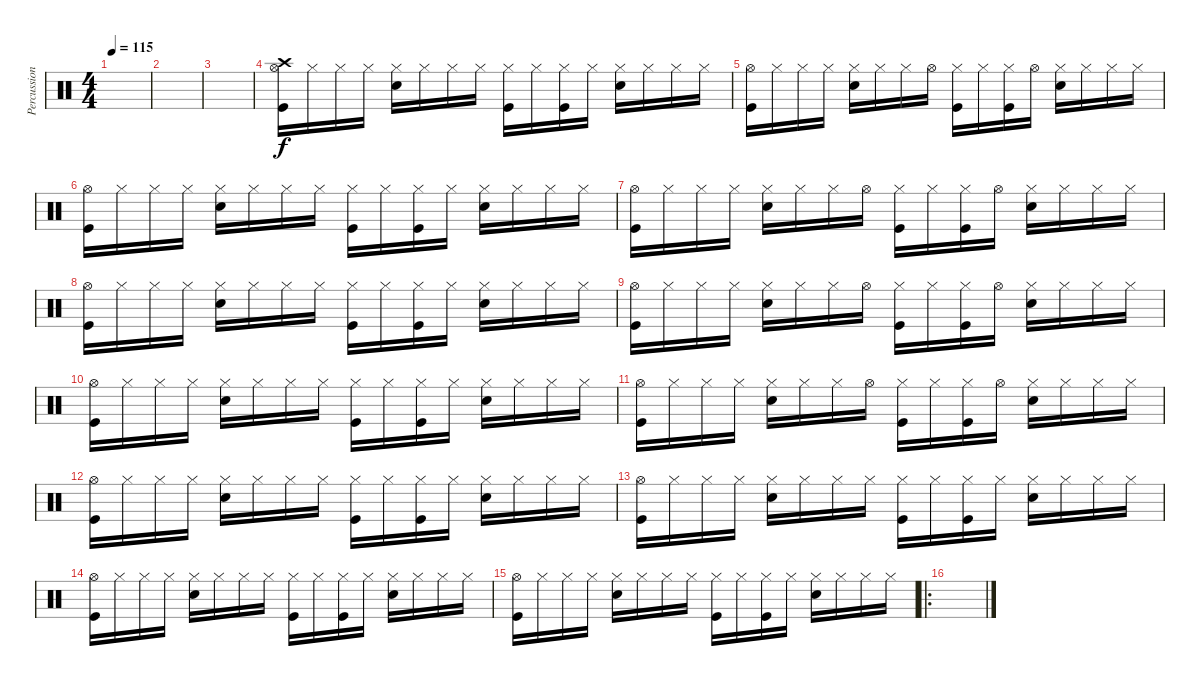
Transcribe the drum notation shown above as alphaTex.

\track ("Percussions" "Percussion") {instrument percussion}
\staff {score}
\articulation defaults
\ts (4 4)
\tempo 115
\clef neutral
\ks c
|
|
|
("Crash high (hit)" "Hi-Hat (open)" "Kick (hit)").16 "Hi-Hat (closed)".16 "Hi-Hat (closed)".16 "Hi-Hat (closed)".16 ("Hi-Hat (closed)" "Snare (hit) 2").16 "Hi-Hat (closed)".16 "Hi-Hat (closed)".16 "Hi-Hat (closed)".16 ("Hi-Hat (closed)" "Kick (hit)").16 "Hi-Hat (closed)".16 ("Hi-Hat (closed)" "Kick (hit)").16 "Hi-Hat (closed)".16 ("Hi-Hat (closed)" "Snare (hit) 2").16 "Hi-Hat (closed)".16 "Hi-Hat (closed)".16 "Hi-Hat (closed)".16 |
("Hi-Hat (open)" "Kick (hit)").16 "Hi-Hat (closed)".16 "Hi-Hat (closed)".16 "Hi-Hat (closed)".16 ("Hi-Hat (closed)" "Snare (hit) 2").16 "Hi-Hat (closed)".16 "Hi-Hat (closed)".16 "Hi-Hat (open)".16 ("Hi-Hat (closed)" "Kick (hit)").16 "Hi-Hat (closed)".16 ("Hi-Hat (closed)" "Kick (hit)").16 "Hi-Hat (open)".16 ("Hi-Hat (closed)" "Snare (hit) 2").16 "Hi-Hat (closed)".16 "Hi-Hat (closed)".16 "Hi-Hat (closed)".16 |
("Hi-Hat (open)" "Kick (hit)").16 "Hi-Hat (closed)".16 "Hi-Hat (closed)".16 "Hi-Hat (closed)".16 ("Hi-Hat (closed)" "Snare (hit) 2").16 "Hi-Hat (closed)".16 "Hi-Hat (closed)".16 "Hi-Hat (closed)".16 ("Hi-Hat (closed)" "Kick (hit)").16 "Hi-Hat (closed)".16 ("Hi-Hat (closed)" "Kick (hit)").16 "Hi-Hat (closed)".16 ("Hi-Hat (closed)" "Snare (hit) 2").16 "Hi-Hat (closed)".16 "Hi-Hat (closed)".16 "Hi-Hat (closed)".16 |
("Hi-Hat (open)" "Kick (hit)").16 "Hi-Hat (closed)".16 "Hi-Hat (closed)".16 "Hi-Hat (closed)".16 ("Hi-Hat (closed)" "Snare (hit) 2").16 "Hi-Hat (closed)".16 "Hi-Hat (closed)".16 "Hi-Hat (open)".16 ("Hi-Hat (closed)" "Kick (hit)").16 "Hi-Hat (closed)".16 ("Hi-Hat (closed)" "Kick (hit)").16 "Hi-Hat (open)".16 ("Hi-Hat (closed)" "Snare (hit) 2").16 "Hi-Hat (closed)".16 "Hi-Hat (closed)".16 "Hi-Hat (closed)".16 |
("Hi-Hat (open)" "Kick (hit)").16 "Hi-Hat (closed)".16 "Hi-Hat (closed)".16 "Hi-Hat (closed)".16 ("Hi-Hat (closed)" "Snare (hit) 2").16 "Hi-Hat (closed)".16 "Hi-Hat (closed)".16 "Hi-Hat (closed)".16 ("Hi-Hat (closed)" "Kick (hit)").16 "Hi-Hat (closed)".16 ("Hi-Hat (closed)" "Kick (hit)").16 "Hi-Hat (closed)".16 ("Hi-Hat (closed)" "Snare (hit) 2").16 "Hi-Hat (closed)".16 "Hi-Hat (closed)".16 "Hi-Hat (closed)".16 |
("Hi-Hat (open)" "Kick (hit)").16 "Hi-Hat (closed)".16 "Hi-Hat (closed)".16 "Hi-Hat (closed)".16 ("Hi-Hat (closed)" "Snare (hit) 2").16 "Hi-Hat (closed)".16 "Hi-Hat (closed)".16 "Hi-Hat (open)".16 ("Hi-Hat (closed)" "Kick (hit)").16 "Hi-Hat (closed)".16 ("Hi-Hat (closed)" "Kick (hit)").16 "Hi-Hat (open)".16 ("Hi-Hat (closed)" "Snare (hit) 2").16 "Hi-Hat (closed)".16 "Hi-Hat (closed)".16 "Hi-Hat (closed)".16 |
("Hi-Hat (open)" "Kick (hit)").16 "Hi-Hat (closed)".16 "Hi-Hat (closed)".16 "Hi-Hat (closed)".16 ("Hi-Hat (closed)" "Snare (hit) 2").16 "Hi-Hat (closed)".16 "Hi-Hat (closed)".16 "Hi-Hat (closed)".16 ("Hi-Hat (closed)" "Kick (hit)").16 "Hi-Hat (closed)".16 ("Hi-Hat (closed)" "Kick (hit)").16 "Hi-Hat (closed)".16 ("Hi-Hat (closed)" "Snare (hit) 2").16 "Hi-Hat (closed)".16 "Hi-Hat (closed)".16 "Hi-Hat (closed)".16 |
("Hi-Hat (open)" "Kick (hit)").16 "Hi-Hat (closed)".16 "Hi-Hat (closed)".16 "Hi-Hat (closed)".16 ("Hi-Hat (closed)" "Snare (hit) 2").16 "Hi-Hat (closed)".16 "Hi-Hat (closed)".16 "Hi-Hat (open)".16 ("Hi-Hat (closed)" "Kick (hit)").16 "Hi-Hat (closed)".16 ("Hi-Hat (closed)" "Kick (hit)").16 "Hi-Hat (open)".16 ("Hi-Hat (closed)" "Snare (hit) 2").16 "Hi-Hat (closed)".16 "Hi-Hat (closed)".16 "Hi-Hat (closed)".16 |
("Hi-Hat (open)" "Kick (hit)").16 "Hi-Hat (closed)".16 "Hi-Hat (closed)".16 "Hi-Hat (closed)".16 ("Hi-Hat (closed)" "Snare (hit) 2").16 "Hi-Hat (closed)".16 "Hi-Hat (closed)".16 "Hi-Hat (closed)".16 ("Hi-Hat (closed)" "Kick (hit)").16 "Hi-Hat (closed)".16 ("Hi-Hat (closed)" "Kick (hit)").16 "Hi-Hat (closed)".16 ("Hi-Hat (closed)" "Snare (hit) 2").16 "Hi-Hat (closed)".16 "Hi-Hat (closed)".16 "Hi-Hat (closed)".16 |
("Hi-Hat (open)" "Kick (hit)").16 "Hi-Hat (closed)".16 "Hi-Hat (closed)".16 "Hi-Hat (closed)".16 ("Hi-Hat (closed)" "Snare (hit) 2").16 "Hi-Hat (closed)".16 "Hi-Hat (closed)".16 "Hi-Hat (closed)".16 ("Hi-Hat (closed)" "Kick (hit)").16 "Hi-Hat (closed)".16 ("Hi-Hat (closed)" "Kick (hit)").16 "Hi-Hat (closed)".16 ("Hi-Hat (closed)" "Snare (hit) 2").16 "Hi-Hat (closed)".16 "Hi-Hat (closed)".16 "Hi-Hat (closed)".16 |
("Hi-Hat (open)" "Kick (hit)").16 "Hi-Hat (closed)".16 "Hi-Hat (closed)".16 "Hi-Hat (closed)".16 ("Hi-Hat (closed)" "Snare (hit) 2").16 "Hi-Hat (closed)".16 "Hi-Hat (closed)".16 "Hi-Hat (closed)".16 ("Hi-Hat (closed)" "Kick (hit)").16 "Hi-Hat (closed)".16 ("Hi-Hat (closed)" "Kick (hit)").16 "Hi-Hat (closed)".16 ("Hi-Hat (closed)" "Snare (hit) 2").16 "Hi-Hat (closed)".16 "Hi-Hat (closed)".16 "Hi-Hat (closed)".16 |
("Hi-Hat (open)" "Kick (hit)").16 "Hi-Hat (closed)".16 "Hi-Hat (closed)".16 "Hi-Hat (closed)".16 ("Hi-Hat (closed)" "Snare (hit) 2").16 "Hi-Hat (closed)".16 "Hi-Hat (closed)".16 "Hi-Hat (closed)".16 ("Hi-Hat (closed)" "Kick (hit)").16 "Hi-Hat (closed)".16 ("Hi-Hat (closed)" "Kick (hit)").16 "Hi-Hat (closed)".16 ("Hi-Hat (closed)" "Snare (hit) 2").16 "Hi-Hat (closed)".16 "Hi-Hat (closed)".16 "Hi-Hat (closed)".16 |
\ro
